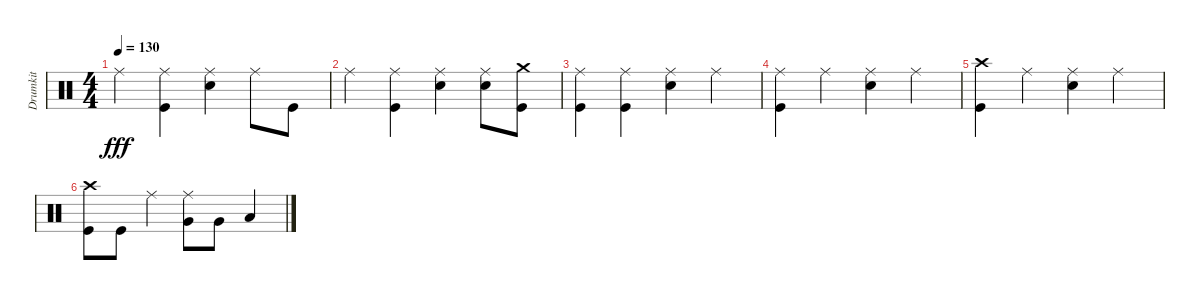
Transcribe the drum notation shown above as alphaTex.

\track ("Drumkit" "Drumkit") {instrument percussion}
\staff {score}
\articulation defaults
\ts (4 4)
\tempo 130
\clef neutral
\ks c "Ride (middle)".4{dy fff}
("Ride (middle)" "Kick (hit)").4 ("Ride (middle)" "Snare (hit) 2").4 "Ride (middle)".8 "Kick (hit)".8 |
"Ride (middle)".4 ("Ride (middle)" "Kick (hit)").4 ("Ride (middle)" "Snare (hit) 2").4 ("Ride (middle)" "Snare (hit) 2").8 ("Kick (hit)" "Crash medium (hit)").8 |
("Ride (middle)" "Kick (hit)").4 ("Ride (middle)" "Kick (hit)").4 ("Ride (middle)" "Snare (hit) 2").4 "Ride (middle)".4 |
("Ride (middle)" "Kick (hit)").4 "Ride (middle)".4 ("Ride (middle)" "Snare (hit) 2").4 "Ride (middle)".4 |
("Kick (hit)" "Crash high (hit)").4 "Ride (middle)".4 ("Ride (middle)" "Snare (hit) 2").4 "Ride (middle)".4 |
("Kick (hit)" "Crash high (hit)").8 "Kick (hit)".8 "Ride (middle)".4 ("Ride (middle)" "Very Low Tom (hit)").8 "Very Low Tom (hit)".8 "Low Tom (hit)".4
